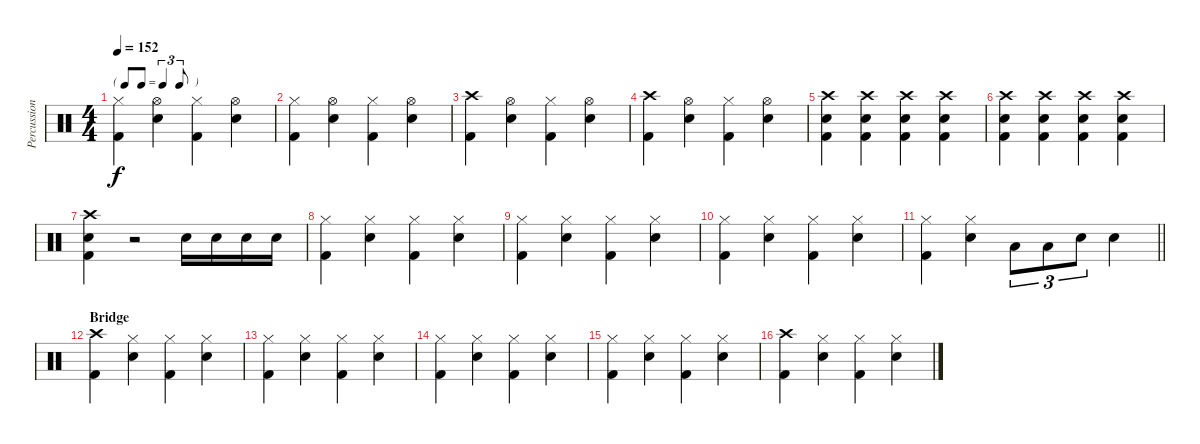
\track ("Percussion" "Percussion") {instrument percussion}
\staff {score}
\articulation defaults
\ts (4 4)
\tf triplet8th
\tempo 152
\clef neutral
\ks c
("Hi-Hat (closed)" "Kick (hit) 2").4{dy f} ("Hi-Hat (open)" "Snare (hit) 2").4 ("Hi-Hat (closed)" "Kick (hit) 2").4 ("Hi-Hat (open)" "Snare (hit) 2").4 |
("Hi-Hat (closed)" "Kick (hit) 2").4 ("Hi-Hat (open)" "Snare (hit) 2").4 ("Hi-Hat (closed)" "Kick (hit) 2").4 ("Hi-Hat (open)" "Snare (hit) 2").4 |
("Crash high (hit)" "Kick (hit) 2").4 ("Hi-Hat (open)" "Snare (hit) 2").4 ("Hi-Hat (closed)" "Kick (hit) 2").4 ("Hi-Hat (open)" "Snare (hit) 2").4 |
("Crash high (hit)" "Kick (hit) 2").4 ("Hi-Hat (open)" "Snare (hit) 2").4 ("Hi-Hat (closed)" "Kick (hit) 2").4 ("Hi-Hat (open)" "Snare (hit) 2").4 |
("Crash high (hit)" "Snare (hit) 2" "Kick (hit) 2").4 ("Crash high (hit)" "Snare (hit) 2" "Kick (hit) 2").4 ("Crash high (hit)" "Snare (hit) 2" "Kick (hit) 2").4 ("Crash high (hit)" "Snare (hit) 2" "Kick (hit) 2").4 |
("Crash high (hit)" "Snare (hit) 2" "Kick (hit) 2").4 ("Crash high (hit)" "Snare (hit) 2" "Kick (hit) 2").4 ("Crash high (hit)" "Snare (hit) 2" "Kick (hit) 2").4 ("Crash high (hit)" "Snare (hit) 2" "Kick (hit) 2").4 |
("Crash high (hit)" "Snare (hit) 2" "Kick (hit) 2").4 r.2 "Snare (hit) 2".16 "Snare (hit) 2".16 "Snare (hit) 2".16 "Snare (hit) 2".16 |
("Hi-Hat (closed)" "Kick (hit) 2").4 ("Hi-Hat (closed)" "Snare (hit) 2").4 ("Hi-Hat (closed)" "Kick (hit) 2").4 ("Hi-Hat (closed)" "Snare (hit) 2").4 |
("Hi-Hat (closed)" "Kick (hit) 2").4 ("Hi-Hat (closed)" "Snare (hit) 2").4 ("Hi-Hat (closed)" "Kick (hit) 2").4 ("Hi-Hat (closed)" "Snare (hit) 2").4 |
("Hi-Hat (closed)" "Kick (hit) 2").4 ("Hi-Hat (closed)" "Snare (hit) 2").4 ("Hi-Hat (closed)" "Kick (hit) 2").4 ("Hi-Hat (closed)" "Snare (hit) 2").4 |
\barLineRight lightlight
("Hi-Hat (closed)" "Kick (hit) 2").4 ("Hi-Hat (closed)" "Snare (hit) 2").4 "Low Tom (hit)".8{tu (3 2)} "Low Tom (hit)".8{tu (3 2)} "Snare (hit) 2".8{tu (3 2)} "Snare (hit) 2".4 |
\section ("" "Bridge")
("Crash high (hit)" "Kick (hit) 2").4 ("Hi-Hat (closed)" "Snare (hit) 2").4 ("Hi-Hat (closed)" "Kick (hit) 2").4 ("Hi-Hat (closed)" "Snare (hit) 2").4 |
("Hi-Hat (closed)" "Kick (hit) 2").4 ("Hi-Hat (closed)" "Snare (hit) 2").4 ("Hi-Hat (closed)" "Kick (hit) 2").4 ("Hi-Hat (closed)" "Snare (hit) 2").4 |
("Hi-Hat (closed)" "Kick (hit) 2").4 ("Hi-Hat (closed)" "Snare (hit) 2").4 ("Hi-Hat (closed)" "Kick (hit) 2").4 ("Hi-Hat (closed)" "Snare (hit) 2").4 |
("Hi-Hat (closed)" "Kick (hit) 2").4 ("Hi-Hat (closed)" "Snare (hit) 2").4 ("Hi-Hat (closed)" "Kick (hit) 2").4 ("Hi-Hat (closed)" "Snare (hit) 2").4 |
("Crash high (hit)" "Kick (hit) 2").4 ("Hi-Hat (closed)" "Snare (hit) 2").4 ("Hi-Hat (closed)" "Kick (hit) 2").4 ("Hi-Hat (closed)" "Snare (hit) 2").4
